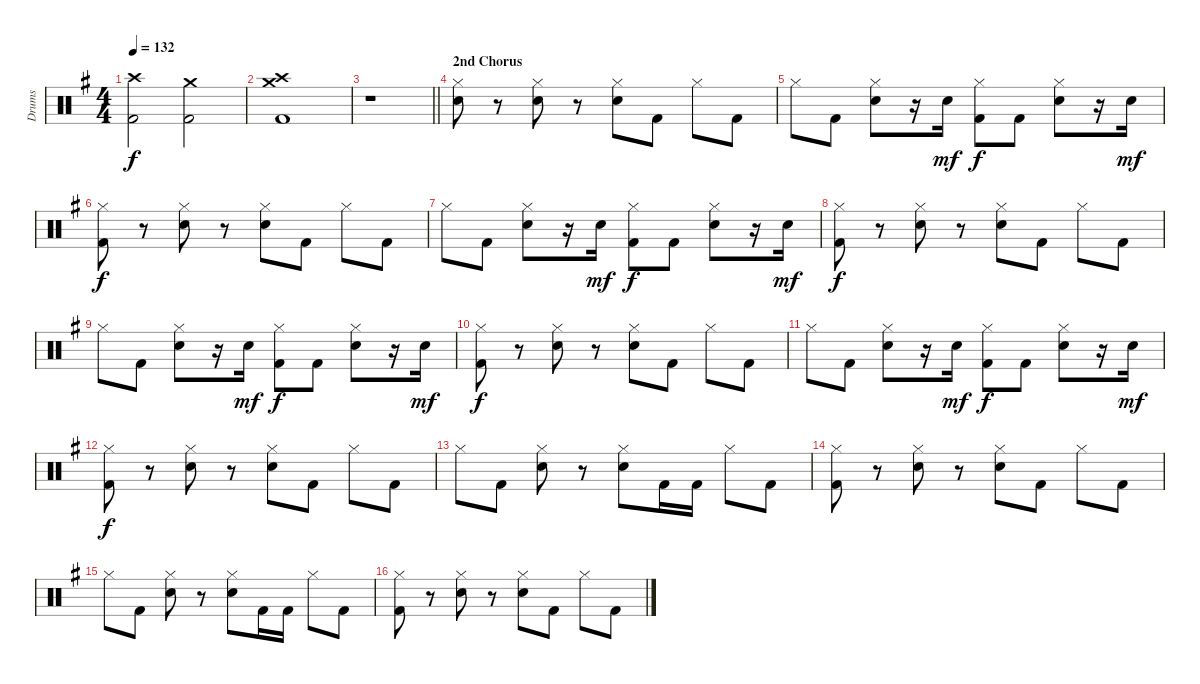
\track ("Drums" "Drums") {instrument percussion}
\staff {score}
\articulation defaults
\ts (4 4)
\tempo 132
\clef neutral
\ks g
("Kick (hit) 2" "Crash high (hit)").2{dy f} ("Kick (hit) 2" "Crash medium (hit)").2 |
("Kick (hit) 2" "Crash medium (hit)" "Crash high (hit)").1 |
\barLineRight lightlight
r.1 |
\section ("" "2nd Chorus")
("Hi-Hat (closed)" "Snare (hit) 2").8 r.8 ("Hi-Hat (closed)" "Snare (hit) 2").8 r.8 ("Hi-Hat (closed)" "Snare (hit) 2").8 "Kick (hit) 2".8 "Hi-Hat (closed)".8 "Kick (hit) 2".8 |
"Hi-Hat (closed)".8 "Kick (hit) 2".8 ("Hi-Hat (closed)" "Snare (hit) 2").8 r.16 "Snare (hit) 2".16{dy mf} ("Hi-Hat (closed)" "Kick (hit) 2").8{dy f} "Kick (hit) 2".8 ("Hi-Hat (closed)" "Snare (hit) 2").8 r.16 "Snare (hit) 2".16{dy mf} |
("Hi-Hat (closed)" "Kick (hit) 2").8{dy f} r.8 ("Hi-Hat (closed)" "Snare (hit) 2").8 r.8 ("Hi-Hat (closed)" "Snare (hit) 2").8 "Kick (hit) 2".8 "Hi-Hat (closed)".8 "Kick (hit) 2".8 |
"Hi-Hat (closed)".8 "Kick (hit) 2".8 ("Hi-Hat (closed)" "Snare (hit) 2").8 r.16 "Snare (hit) 2".16{dy mf} ("Hi-Hat (closed)" "Kick (hit) 2").8{dy f} "Kick (hit) 2".8 ("Hi-Hat (closed)" "Snare (hit) 2").8 r.16 "Snare (hit) 2".16{dy mf} |
("Hi-Hat (closed)" "Kick (hit) 2").8{dy f} r.8 ("Hi-Hat (closed)" "Snare (hit) 2").8 r.8 ("Hi-Hat (closed)" "Snare (hit) 2").8 "Kick (hit) 2".8 "Hi-Hat (closed)".8 "Kick (hit) 2".8 |
"Hi-Hat (closed)".8 "Kick (hit) 2".8 ("Hi-Hat (closed)" "Snare (hit) 2").8 r.16 "Snare (hit) 2".16{dy mf} ("Hi-Hat (closed)" "Kick (hit) 2").8{dy f} "Kick (hit) 2".8 ("Hi-Hat (closed)" "Snare (hit) 2").8 r.16 "Snare (hit) 2".16{dy mf} |
("Hi-Hat (closed)" "Kick (hit) 2").8{dy f} r.8 ("Hi-Hat (closed)" "Snare (hit) 2").8 r.8 ("Hi-Hat (closed)" "Snare (hit) 2").8 "Kick (hit) 2".8 "Hi-Hat (closed)".8 "Kick (hit) 2".8 |
"Hi-Hat (closed)".8 "Kick (hit) 2".8 ("Hi-Hat (closed)" "Snare (hit) 2").8 r.16 "Snare (hit) 2".16{dy mf} ("Hi-Hat (closed)" "Kick (hit) 2").8{dy f} "Kick (hit) 2".8 ("Hi-Hat (closed)" "Snare (hit) 2").8 r.16 "Snare (hit) 2".16{dy mf} |
("Hi-Hat (closed)" "Kick (hit) 2").8{dy f} r.8 ("Hi-Hat (closed)" "Snare (hit) 2").8 r.8 ("Hi-Hat (closed)" "Snare (hit) 2").8 "Kick (hit) 2".8 "Hi-Hat (closed)".8 "Kick (hit) 2".8 |
"Hi-Hat (closed)".8 "Kick (hit) 2".8 ("Hi-Hat (closed)" "Snare (hit) 2").8 r.8 ("Hi-Hat (closed)" "Snare (hit) 2").8 "Kick (hit) 2".16 "Kick (hit) 2".16 "Hi-Hat (closed)".8 "Kick (hit) 2".8 |
("Hi-Hat (closed)" "Kick (hit) 2").8 r.8 ("Hi-Hat (closed)" "Snare (hit) 2").8 r.8 ("Hi-Hat (closed)" "Snare (hit) 2").8 "Kick (hit) 2".8 "Hi-Hat (closed)".8 "Kick (hit) 2".8 |
"Hi-Hat (closed)".8 "Kick (hit) 2".8 ("Hi-Hat (closed)" "Snare (hit) 2").8 r.8 ("Hi-Hat (closed)" "Snare (hit) 2").8 "Kick (hit) 2".16 "Kick (hit) 2".16 "Hi-Hat (closed)".8 "Kick (hit) 2".8 |
("Hi-Hat (closed)" "Kick (hit) 2").8 r.8 ("Hi-Hat (closed)" "Snare (hit) 2").8 r.8 ("Hi-Hat (closed)" "Snare (hit) 2").8 "Kick (hit) 2".8 "Hi-Hat (closed)".8 "Kick (hit) 2".8
